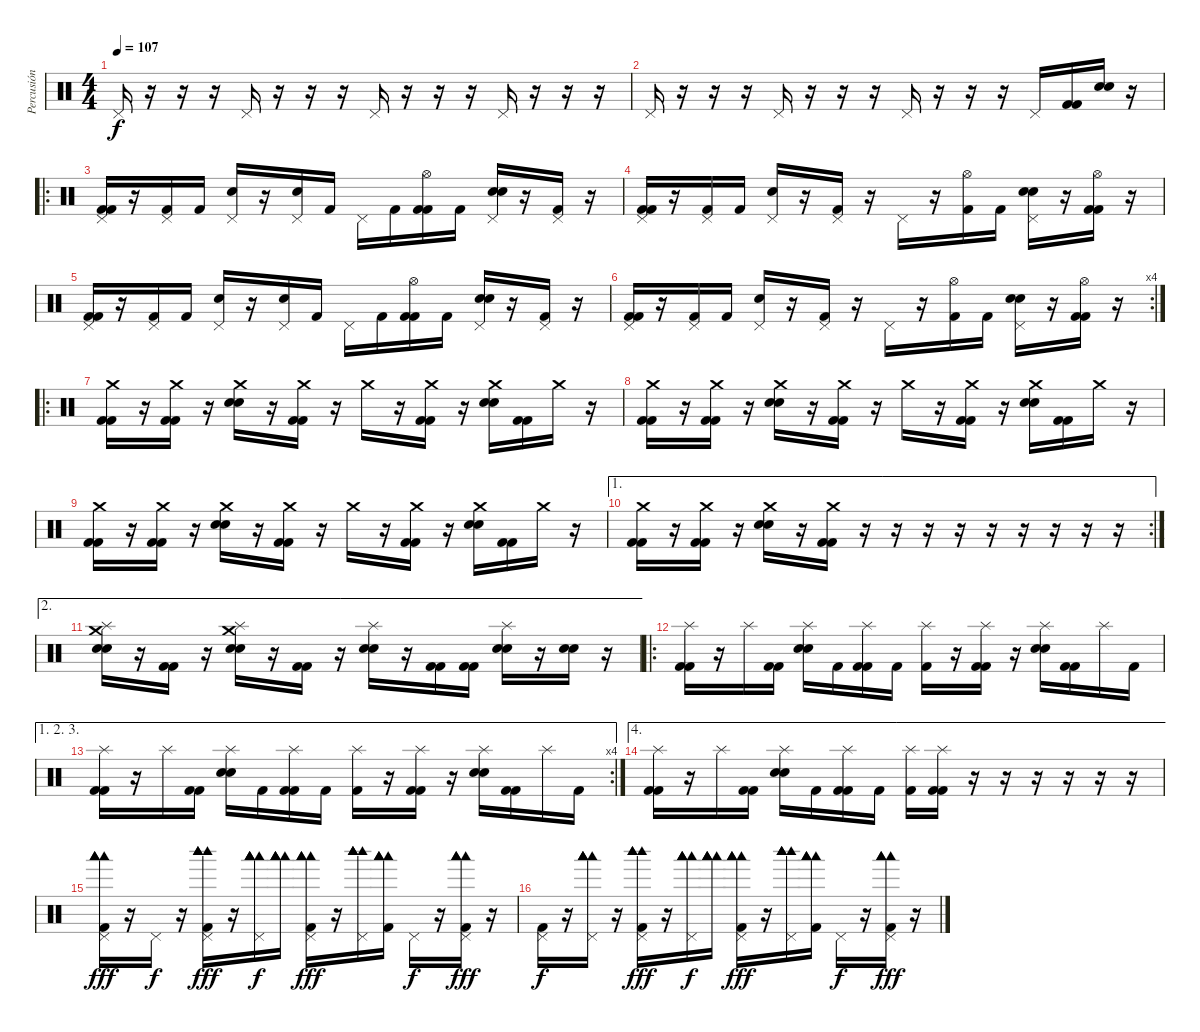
\track ("Percusión" "Percusión") {instrument percussion}
\staff {score}
\articulation defaults
\ts (4 4)
\tempo 107
\clef neutral
\ks c "Pedal Hi-Hat (hit)".16{dy f}
r.16 r.16 r.16 "Pedal Hi-Hat (hit)".16 r.16 r.16 r.16 "Pedal Hi-Hat (hit)".16 r.16 r.16 r.16 "Pedal Hi-Hat (hit)".16 r.16 r.16 r.16 |
"Pedal Hi-Hat (hit)".16 r.16 r.16 r.16 "Pedal Hi-Hat (hit)".16 r.16 r.16 r.16 "Pedal Hi-Hat (hit)".16 r.16 r.16 r.16 "Pedal Hi-Hat (hit)".16 ("Kick (hit) 2" "Kick (hit) 2").16 ("Electric Snare (hit)" "Electric Snare (hit)").16 r.16 |
\ro
("Pedal Hi-Hat (hit)" "Kick (hit) 2" "Kick (hit) 2").16 r.16 ("Pedal Hi-Hat (hit)" "Kick (hit) 2").16 "Kick (hit) 2".16 ("Pedal Hi-Hat (hit)" "Electric Snare (hit)").16 r.16 ("Pedal Hi-Hat (hit)" "Electric Snare (hit)").16 "Kick (hit) 2".16 "Pedal Hi-Hat (hit)".16 "Kick (hit) 2".16 ("Hi-Hat (open)" "Kick (hit) 2" "Kick (hit) 2").16 "Kick (hit) 2".16 ("Pedal Hi-Hat (hit)" "Electric Snare (hit)" "Electric Snare (hit)").16 r.16 ("Pedal Hi-Hat (hit)" "Kick (hit) 2").16 r.16 |
("Pedal Hi-Hat (hit)" "Kick (hit) 2" "Kick (hit) 2").16 r.16 ("Pedal Hi-Hat (hit)" "Kick (hit) 2").16 "Kick (hit) 2".16 ("Pedal Hi-Hat (hit)" "Electric Snare (hit)").16 r.16 ("Pedal Hi-Hat (hit)" "Kick (hit) 2").16 r.16 "Pedal Hi-Hat (hit)".16 r.16 ("Hi-Hat (open)" "Kick (hit) 2").16 "Kick (hit) 2".16 ("Pedal Hi-Hat (hit)" "Electric Snare (hit)" "Electric Snare (hit)").16 r.16 ("Hi-Hat (open)" "Kick (hit) 2" "Kick (hit) 2").16 r.16 |
("Pedal Hi-Hat (hit)" "Kick (hit) 2" "Kick (hit) 2").16 r.16 ("Pedal Hi-Hat (hit)" "Kick (hit) 2").16 "Kick (hit) 2".16 ("Pedal Hi-Hat (hit)" "Electric Snare (hit)").16 r.16 ("Pedal Hi-Hat (hit)" "Electric Snare (hit)").16 "Kick (hit) 2".16 "Pedal Hi-Hat (hit)".16 "Kick (hit) 2".16 ("Hi-Hat (open)" "Kick (hit) 2" "Kick (hit) 2").16 "Kick (hit) 2".16 ("Pedal Hi-Hat (hit)" "Electric Snare (hit)" "Electric Snare (hit)").16 r.16 ("Pedal Hi-Hat (hit)" "Kick (hit) 2").16 r.16 |
\rc 4
("Pedal Hi-Hat (hit)" "Kick (hit) 2" "Kick (hit) 2").16 r.16 ("Pedal Hi-Hat (hit)" "Kick (hit) 2").16 "Kick (hit) 2".16 ("Pedal Hi-Hat (hit)" "Electric Snare (hit)").16 r.16 ("Pedal Hi-Hat (hit)" "Kick (hit) 2").16 r.16 "Pedal Hi-Hat (hit)".16 r.16 ("Hi-Hat (open)" "Kick (hit) 2").16 "Kick (hit) 2".16 ("Pedal Hi-Hat (hit)" "Electric Snare (hit)" "Electric Snare (hit)").16 r.16 ("Hi-Hat (open)" "Kick (hit) 2" "Kick (hit) 2").16 r.16 |
\ro
("Crash medium (hit)" "Kick (hit) 2" "Kick (hit) 2").16 r.16 ("Crash medium (hit)" "Kick (hit) 2" "Kick (hit) 2").16 r.16 ("Crash medium (hit)" "Electric Snare (hit)" "Electric Snare (hit)").16 r.16 ("Crash medium (hit)" "Kick (hit) 2" "Kick (hit) 2").16 r.16 "Crash medium (hit)".16 r.16 ("Crash medium (hit)" "Kick (hit) 2" "Kick (hit) 2").16 r.16 ("Crash medium (hit)" "Electric Snare (hit)" "Electric Snare (hit)").16 ("Kick (hit) 2" "Kick (hit) 2").16 "Crash medium (hit)".16 r.16 |
("Crash medium (hit)" "Kick (hit) 2" "Kick (hit) 2").16 r.16 ("Crash medium (hit)" "Kick (hit) 2" "Kick (hit) 2").16 r.16 ("Crash medium (hit)" "Electric Snare (hit)" "Electric Snare (hit)").16 r.16 ("Crash medium (hit)" "Kick (hit) 2" "Kick (hit) 2").16 r.16 "Crash medium (hit)".16 r.16 ("Crash medium (hit)" "Kick (hit) 2" "Kick (hit) 2").16 r.16 ("Crash medium (hit)" "Electric Snare (hit)" "Electric Snare (hit)").16 ("Kick (hit) 2" "Kick (hit) 2").16 "Crash medium (hit)".16 r.16 |
("Crash medium (hit)" "Kick (hit) 2" "Kick (hit) 2").16 r.16 ("Crash medium (hit)" "Kick (hit) 2" "Kick (hit) 2").16 r.16 ("Crash medium (hit)" "Electric Snare (hit)" "Electric Snare (hit)").16 r.16 ("Crash medium (hit)" "Kick (hit) 2" "Kick (hit) 2").16 r.16 "Crash medium (hit)".16 r.16 ("Crash medium (hit)" "Kick (hit) 2" "Kick (hit) 2").16 r.16 ("Crash medium (hit)" "Electric Snare (hit)" "Electric Snare (hit)").16 ("Kick (hit) 2" "Kick (hit) 2").16 "Crash medium (hit)".16 r.16 |
\ae 1
\rc 2
("Crash medium (hit)" "Kick (hit) 2" "Kick (hit) 2").16 r.16 ("Crash medium (hit)" "Kick (hit) 2" "Kick (hit) 2").16 r.16 ("Crash medium (hit)" "Electric Snare (hit)" "Electric Snare (hit)").16 r.16 ("Crash medium (hit)" "Kick (hit) 2" "Kick (hit) 2").16 r.16 r.16 r.16 r.16 r.16 r.16 r.16 r.16 r.16 |
\ae 2
("Crash medium (hit)" "Splash (hit)" "Electric Snare (hit)" "Electric Snare (hit)").16 r.16 ("Kick (hit) 2" "Kick (hit) 2").16 r.16 ("Crash medium (hit)" "Splash (hit)" "Electric Snare (hit)" "Electric Snare (hit)").16 r.16 ("Kick (hit) 2" "Kick (hit) 2").16 r.16 ("Splash (hit)" "Electric Snare (hit)" "Electric Snare (hit)").16 r.16 ("Kick (hit) 2" "Kick (hit) 2").16 ("Kick (hit) 2" "Kick (hit) 2").16 ("Splash (hit)" "Electric Snare (hit)" "Electric Snare (hit)").16 r.16 ("Electric Snare (hit)" "Electric Snare (hit)").16 r.16 |
\ro
("Splash (hit)" "Kick (hit) 2" "Kick (hit) 2").16 r.16 "Splash (hit)".16 ("Kick (hit) 2" "Kick (hit) 2").16 ("Splash (hit)" "Electric Snare (hit)" "Electric Snare (hit)").16 "Kick (hit) 2".16 ("Splash (hit)" "Kick (hit) 2" "Kick (hit) 2").16 "Kick (hit) 2".16 ("Splash (hit)" "Kick (hit) 2").16 r.16 ("Splash (hit)" "Kick (hit) 2" "Kick (hit) 2").16 r.16 ("Splash (hit)" "Electric Snare (hit)" "Electric Snare (hit)").16 ("Kick (hit) 2" "Kick (hit) 2").16 "Splash (hit)".16 "Kick (hit) 2".16 |
\ae (1 2 3)
\rc 4
("Splash (hit)" "Kick (hit) 2" "Kick (hit) 2").16 r.16 "Splash (hit)".16 ("Kick (hit) 2" "Kick (hit) 2").16 ("Splash (hit)" "Electric Snare (hit)" "Electric Snare (hit)").16 "Kick (hit) 2".16 ("Splash (hit)" "Kick (hit) 2" "Kick (hit) 2").16 "Kick (hit) 2".16 ("Splash (hit)" "Kick (hit) 2").16 r.16 ("Splash (hit)" "Kick (hit) 2" "Kick (hit) 2").16 r.16 ("Splash (hit)" "Electric Snare (hit)" "Electric Snare (hit)").16 ("Kick (hit) 2" "Kick (hit) 2").16 "Splash (hit)".16 "Kick (hit) 2".16 |
\ae 4
("Splash (hit)" "Kick (hit) 2" "Kick (hit) 2").16 r.16 "Splash (hit)".16 ("Kick (hit) 2" "Kick (hit) 2").16 ("Splash (hit)" "Electric Snare (hit)" "Electric Snare (hit)").16 "Kick (hit) 2".16 ("Splash (hit)" "Kick (hit) 2" "Kick (hit) 2").16 "Kick (hit) 2".16 ("Splash (hit)" "Kick (hit) 2").16 ("Splash (hit)" "Kick (hit) 2" "Kick (hit) 2").16 r.16 r.16 r.16 r.16 r.16 r.16 |
("Pedal Hi-Hat (hit)" "Woodblock low (hit)" "Woodblock low (hit)" "Kick (hit) 2" "Woodblock low (hit)" "Woodblock low (hit)").16{dy fff} r.16 "Pedal Hi-Hat (hit)".16{dy f} r.16 ("Pedal Hi-Hat (hit)" "Woodblock high (hit)" "Woodblock high (hit)" "Kick (hit) 2" "Woodblock high (hit)" "Woodblock high (hit)").16{dy fff} r.16 ("Pedal Hi-Hat (hit)" "Woodblock low (hit)" "Woodblock low (hit)" "Woodblock low (hit)" "Woodblock low (hit)" "Woodblock low (hit)").16{dy f} ("Woodblock low (hit)" "Woodblock low (hit)" "Woodblock low (hit)" "Woodblock low (hit)" "Woodblock low (hit)").16 ("Pedal Hi-Hat (hit)" "Woodblock low (hit)" "Woodblock low (hit)" "Kick (hit) 2" "Woodblock low (hit)" "Woodblock low (hit)").16{dy fff} r.16 ("Pedal Hi-Hat (hit)" "Woodblock high (hit)" "Woodblock high (hit)" "Woodblock high (hit)" "Woodblock high (hit)" "Woodblock high (hit)").16 ("Woodblock low (hit)" "Woodblock low (hit)" "Kick (hit) 2" "Woodblock low (hit)" "Woodblock low (hit)").16 "Pedal Hi-Hat (hit)".16{dy f} r.16 ("Pedal Hi-Hat (hit)" "Woodblock low (hit)" "Woodblock low (hit)" "Kick (hit) 2" "Woodblock low (hit)" "Woodblock low (hit)").16{dy fff} r.16 |
("Pedal Hi-Hat (hit)" "Kick (hit) 2").16{dy f} r.16 ("Pedal Hi-Hat (hit)" "Woodblock low (hit)" "Woodblock low (hit)" "Woodblock low (hit)" "Woodblock low (hit)" "Woodblock low (hit)").16 r.16 ("Pedal Hi-Hat (hit)" "Woodblock high (hit)" "Woodblock high (hit)" "Kick (hit) 2" "Woodblock high (hit)" "Woodblock high (hit)").16{dy fff} r.16 ("Pedal Hi-Hat (hit)" "Woodblock low (hit)" "Woodblock low (hit)" "Woodblock low (hit)" "Woodblock low (hit)" "Woodblock low (hit)").16{dy f} ("Woodblock low (hit)" "Woodblock low (hit)" "Woodblock low (hit)" "Woodblock low (hit)" "Woodblock low (hit)").16 ("Pedal Hi-Hat (hit)" "Woodblock low (hit)" "Woodblock low (hit)" "Kick (hit) 2" "Woodblock low (hit)" "Woodblock low (hit)").16{dy fff} r.16 ("Pedal Hi-Hat (hit)" "Woodblock high (hit)" "Woodblock high (hit)" "Woodblock high (hit)" "Woodblock high (hit)" "Woodblock high (hit)").16 ("Woodblock low (hit)" "Woodblock low (hit)" "Kick (hit) 2" "Woodblock low (hit)" "Woodblock low (hit)").16 "Pedal Hi-Hat (hit)".16{dy f} r.16 ("Pedal Hi-Hat (hit)" "Woodblock low (hit)" "Woodblock low (hit)" "Kick (hit) 2" "Woodblock low (hit)" "Woodblock low (hit)").16{dy fff} r.16
